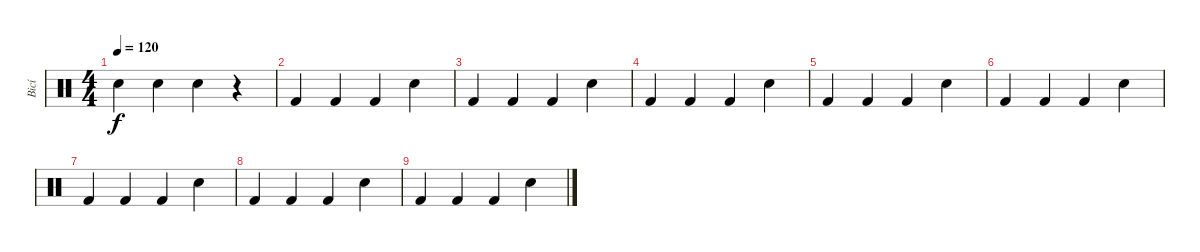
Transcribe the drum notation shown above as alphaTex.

\track ("Bicí" "Bicí") {instrument percussion}
\staff {score}
\articulation defaults
\ts (4 4)
\tempo 120
\clef neutral
\ks c "Hand Clap (hit)".4{dy f} "Hand Clap (hit)".4 "Hand Clap (hit)".4
r.4 |
"Kick (hit) 2".4 "Kick (hit) 2".4 "Kick (hit) 2".4 "Hand Clap (hit)".4 |
"Kick (hit) 2".4 "Kick (hit) 2".4 "Kick (hit) 2".4 "Hand Clap (hit)".4 |
"Kick (hit) 2".4 "Kick (hit) 2".4 "Kick (hit) 2".4 "Hand Clap (hit)".4 |
"Kick (hit) 2".4 "Kick (hit) 2".4 "Kick (hit) 2".4 "Hand Clap (hit)".4 |
"Kick (hit) 2".4 "Kick (hit) 2".4 "Kick (hit) 2".4 "Hand Clap (hit)".4 |
"Kick (hit) 2".4 "Kick (hit) 2".4 "Kick (hit) 2".4 "Hand Clap (hit)".4 |
"Kick (hit) 2".4 "Kick (hit) 2".4 "Kick (hit) 2".4 "Hand Clap (hit)".4 |
"Kick (hit) 2".4 "Kick (hit) 2".4 "Kick (hit) 2".4 "Hand Clap (hit)".4
